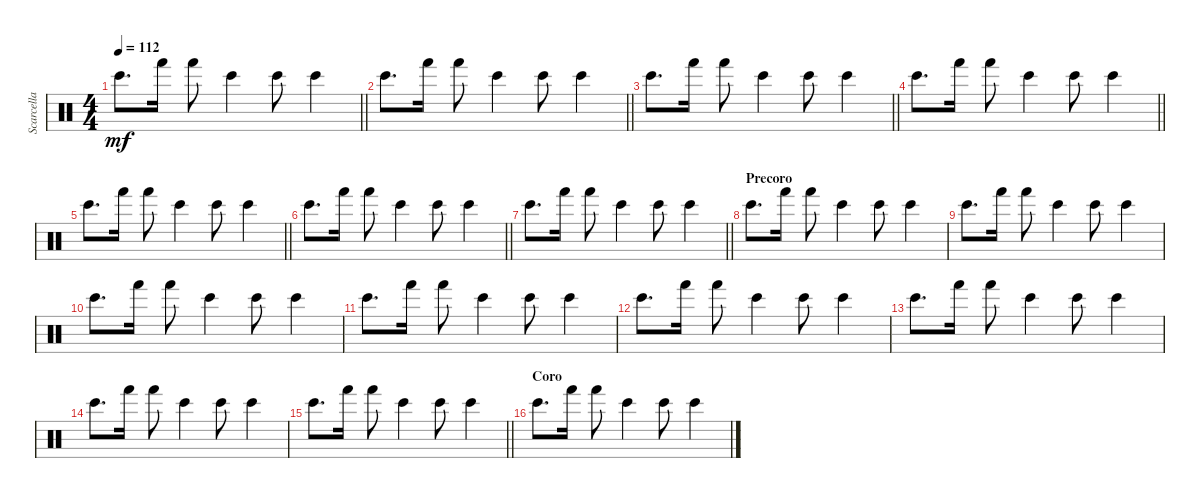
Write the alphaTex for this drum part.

\track ("Scarcella" "Scarcella") {instrument percussion}
\staff {score}
\articulation defaults
\ts (4 4)
\tempo 112
\clef neutral
\barLineRight lightlight
\ks c "Bongo High (hit)".8{d dy mf} "Hand (hit)".16 "Hand (hit)".8 "Bongo High (hit)".4 "Bongo High (hit)".8 "Bongo High (hit)".4
|
\barLineRight lightlight "Bongo High (hit)".8{d} "Hand (hit)".16 "Hand (hit)".8 "Bongo High (hit)".4 "Bongo High (hit)".8 "Bongo High (hit)".4
|
\barLineRight lightlight "Bongo High (hit)".8{d} "Hand (hit)".16 "Hand (hit)".8 "Bongo High (hit)".4 "Bongo High (hit)".8 "Bongo High (hit)".4
|
\barLineRight lightlight "Bongo High (hit)".8{d} "Hand (hit)".16 "Hand (hit)".8 "Bongo High (hit)".4 "Bongo High (hit)".8 "Bongo High (hit)".4
|
\barLineRight lightlight "Bongo High (hit)".8{d} "Hand (hit)".16 "Hand (hit)".8 "Bongo High (hit)".4 "Bongo High (hit)".8 "Bongo High (hit)".4
|
\barLineRight lightlight "Bongo High (hit)".8{d} "Hand (hit)".16 "Hand (hit)".8 "Bongo High (hit)".4 "Bongo High (hit)".8 "Bongo High (hit)".4
|
\barLineRight lightlight "Bongo High (hit)".8{d} "Hand (hit)".16 "Hand (hit)".8 "Bongo High (hit)".4 "Bongo High (hit)".8 "Bongo High (hit)".4
|
\section ("" "Precoro")
"Bongo High (hit)".8{d} "Hand (hit)".16 "Hand (hit)".8 "Bongo High (hit)".4 "Bongo High (hit)".8 "Bongo High (hit)".4 |
"Bongo High (hit)".8{d} "Hand (hit)".16 "Hand (hit)".8 "Bongo High (hit)".4 "Bongo High (hit)".8 "Bongo High (hit)".4 |
"Bongo High (hit)".8{d} "Hand (hit)".16 "Hand (hit)".8 "Bongo High (hit)".4 "Bongo High (hit)".8 "Bongo High (hit)".4 |
"Bongo High (hit)".8{d} "Hand (hit)".16 "Hand (hit)".8 "Bongo High (hit)".4 "Bongo High (hit)".8 "Bongo High (hit)".4 |
"Bongo High (hit)".8{d} "Hand (hit)".16 "Hand (hit)".8 "Bongo High (hit)".4 "Bongo High (hit)".8 "Bongo High (hit)".4 |
"Bongo High (hit)".8{d} "Hand (hit)".16 "Hand (hit)".8 "Bongo High (hit)".4 "Bongo High (hit)".8 "Bongo High (hit)".4 |
"Bongo High (hit)".8{d} "Hand (hit)".16 "Hand (hit)".8 "Bongo High (hit)".4 "Bongo High (hit)".8 "Bongo High (hit)".4 |
\barLineRight lightlight "Bongo High (hit)".8{d} "Hand (hit)".16 "Hand (hit)".8 "Bongo High (hit)".4 "Bongo High (hit)".8 "Bongo High (hit)".4
|
\section ("" "Coro")
"Bongo High (hit)".8{d} "Hand (hit)".16 "Hand (hit)".8 "Bongo High (hit)".4 "Bongo High (hit)".8 "Bongo High (hit)".4
